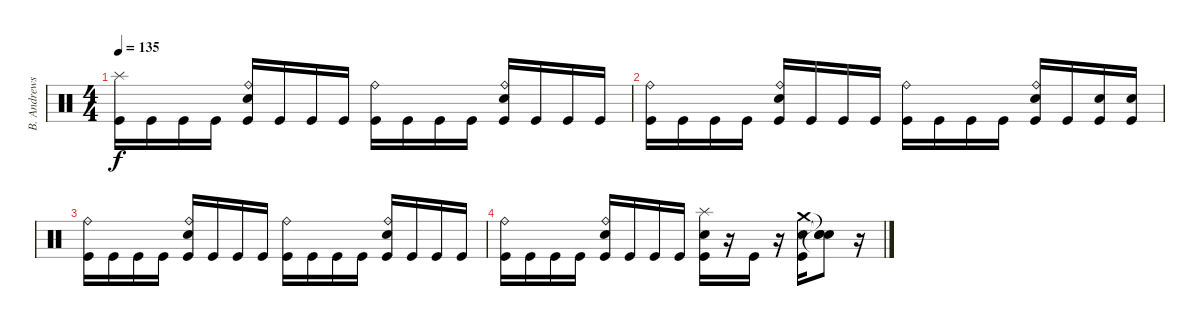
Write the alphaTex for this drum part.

\track ("B. Andrews" "B. Andrews") {instrument percussion}
\staff {score}
\articulation defaults
\ts (4 4)
\tempo 135
\clef neutral
\ks c
("Splash (hit)" "Kick (hit)").16{dy f} "Kick (hit)".16 "Kick (hit)".16 "Kick (hit)".16 ("Ride (bell)" "Electric Snare (hit)" "Kick (hit)").16 "Kick (hit)".16 "Kick (hit)".16 "Kick (hit)".16 ("Ride (bell)" "Kick (hit)").16 "Kick (hit)".16 "Kick (hit)".16 "Kick (hit)".16 ("Ride (bell)" "Electric Snare (hit)" "Kick (hit)").16 "Kick (hit)".16 "Kick (hit)".16 "Kick (hit)".16 |
("Ride (bell)" "Kick (hit)").16 "Kick (hit)".16 "Kick (hit)".16 "Kick (hit)".16 ("Ride (bell)" "Electric Snare (hit)" "Kick (hit)").16 "Kick (hit)".16 "Kick (hit)".16 "Kick (hit)".16 ("Ride (bell)" "Kick (hit)").16 "Kick (hit)".16 "Kick (hit)".16 "Kick (hit)".16 ("Ride (bell)" "Electric Snare (hit)" "Kick (hit)").16 "Kick (hit)".16 ("Electric Snare (hit)" "Kick (hit)").16 ("Electric Snare (hit)" "Kick (hit)").16 |
("Ride (bell)" "Kick (hit)").16 "Kick (hit)".16 "Kick (hit)".16 "Kick (hit)".16 ("Ride (bell)" "Electric Snare (hit)" "Kick (hit)").16 "Kick (hit)".16 "Kick (hit)".16 "Kick (hit)".16 ("Ride (bell)" "Kick (hit)").16 "Kick (hit)".16 "Kick (hit)".16 "Kick (hit)".16 ("Ride (bell)" "Electric Snare (hit)" "Kick (hit)").16 "Kick (hit)".16 "Kick (hit)".16 "Kick (hit)".16 |
("Ride (bell)" "Kick (hit)").16 "Kick (hit)".16 "Kick (hit)".16 "Kick (hit)".16 ("Ride (bell)" "Electric Snare (hit)" "Kick (hit)").16 "Kick (hit)".16 "Kick (hit)".16 "Kick (hit)".16 ("Splash (hit)" "Electric Snare (hit)" "Kick (hit)").16 r.16 "Kick (hit)".16 r.16 ("Crash medium (hit)" "Electric Snare (hit)" "Kick (hit)").16 ("Snare (hit)"{t} "Snare (hit)"{t} "Snare (hit)"{t}).8 r.16
